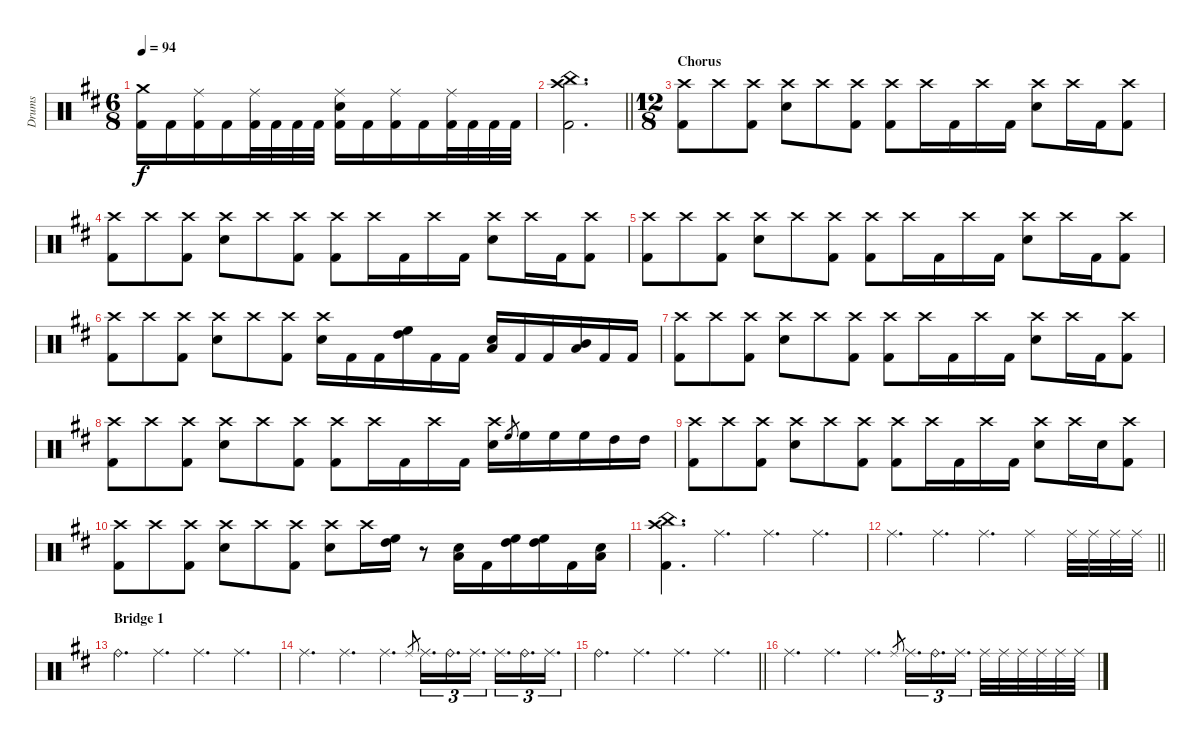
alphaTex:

\track ("Drums" "Drums") {instrument percussion}
\staff {score}
\articulation defaults
\ts (6 8)
\tempo 94
\clef neutral
\ks bminor
("Crash medium (hit)" "Kick (hit) 2").16{dy f} "Kick (hit) 2".16 ("Ride (middle)" "Kick (hit) 2").16 "Kick (hit) 2".16 ("Ride (middle)" "Kick (hit) 2").32 "Kick (hit) 2".32 "Kick (hit) 2".32 "Kick (hit) 2".32 ("Ride (middle)" "Snare (hit) 2" "Kick (hit) 2").16 "Kick (hit) 2".16 ("Ride (middle)" "Kick (hit) 2").16 "Kick (hit) 2".16 ("Ride (middle)" "Kick (hit) 2").32 "Kick (hit) 2".32 "Kick (hit) 2".32 "Kick (hit) 2".32 |
\barLineRight lightlight
("Crash high (hit)" "China (hit)" "Kick (hit) 2").2{d} |
\ts (12 8)
\section ("" "Chorus")
("Crash high (hit)" "Kick (hit) 2").8 "Crash high (hit)".8 ("Crash high (hit)" "Kick (hit) 2").8 ("Crash high (hit)" "Snare (hit) 2").8 "Crash high (hit)".8 ("Crash high (hit)" "Kick (hit) 2").8 ("Crash high (hit)" "Kick (hit) 2").8 "Crash high (hit)".16 "Kick (hit) 2".16 "Crash high (hit)".16 "Kick (hit) 2".16 ("Crash high (hit)" "Snare (hit) 2").8 "Crash high (hit)".16 "Kick (hit) 2".16 ("Crash high (hit)" "Kick (hit) 2").8 |
("Crash high (hit)" "Kick (hit) 2").8 "Crash high (hit)".8 ("Crash high (hit)" "Kick (hit) 2").8 ("Crash high (hit)" "Snare (hit) 2").8 "Crash high (hit)".8 ("Crash high (hit)" "Kick (hit) 2").8 ("Crash high (hit)" "Kick (hit) 2").8 "Crash high (hit)".16 "Kick (hit) 2".16 "Crash high (hit)".16 "Kick (hit) 2".16 ("Crash high (hit)" "Snare (hit) 2").8 "Crash high (hit)".16 "Kick (hit) 2".16 ("Crash high (hit)" "Kick (hit) 2").8 |
("Crash high (hit)" "Kick (hit) 2").8 "Crash high (hit)".8 ("Crash high (hit)" "Kick (hit) 2").8 ("Crash high (hit)" "Snare (hit) 2").8 "Crash high (hit)".8 ("Crash high (hit)" "Kick (hit) 2").8 ("Crash high (hit)" "Kick (hit) 2").8 "Crash high (hit)".16 "Kick (hit) 2".16 "Crash high (hit)".16 "Kick (hit) 2".16 ("Crash high (hit)" "Snare (hit) 2").8 "Crash high (hit)".16 "Kick (hit) 2".16 ("Crash high (hit)" "Kick (hit) 2").8 |
("Crash high (hit)" "Kick (hit) 2").8 "Crash high (hit)".8 ("Crash high (hit)" "Kick (hit) 2").8 ("Crash high (hit)" "Snare (hit) 2").8 "Crash high (hit)".8 ("Crash high (hit)" "Kick (hit) 2").8 ("Crash high (hit)" "Snare (hit) 2").16 "Kick (hit) 2".16 "Kick (hit) 2".16 ("High Floor Tom (hit)" "High Tom (hit)").16 "Kick (hit) 2".16 "Kick (hit) 2".16 ("Low Tom (hit)" "Snare (hit) 2").16 "Kick (hit) 2".16 "Kick (hit) 2".16 ("Mid Tom (hit)" "Low Tom (hit)").16 "Kick (hit) 2".16 "Kick (hit) 2".16 |
("Crash high (hit)" "Kick (hit) 2").8 "Crash high (hit)".8 ("Crash high (hit)" "Kick (hit) 2").8 ("Crash high (hit)" "Snare (hit) 2").8 "Crash high (hit)".8 ("Crash high (hit)" "Kick (hit) 2").8 ("Crash high (hit)" "Kick (hit) 2").8 "Crash high (hit)".16 "Kick (hit) 2".16 "Crash high (hit)".16 "Kick (hit) 2".16 ("Crash high (hit)" "Snare (hit) 2").8 "Crash high (hit)".16 "Kick (hit) 2".16 ("Crash high (hit)" "Kick (hit) 2").8 |
("Crash high (hit)" "Kick (hit) 2").8 "Crash high (hit)".8 ("Crash high (hit)" "Kick (hit) 2").8 ("Crash high (hit)" "Snare (hit) 2").8 "Crash high (hit)".8 ("Crash high (hit)" "Kick (hit) 2").8 ("Crash high (hit)" "Kick (hit) 2").8 "Crash high (hit)".16 "Kick (hit) 2".16 "Crash high (hit)".16 "Kick (hit) 2".16 ("Crash high (hit)" "Snare (hit) 2").16 "High Floor Tom (hit)".8{gr} "High Floor Tom (hit)".16 "High Floor Tom (hit)".16 "High Floor Tom (hit)".16 "High Tom (hit)".16 "High Tom (hit)".16 |
("Crash high (hit)" "Kick (hit) 2").8 "Crash high (hit)".8 ("Crash high (hit)" "Kick (hit) 2").8 ("Crash high (hit)" "Snare (hit) 2").8 "Crash high (hit)".8 ("Crash high (hit)" "Kick (hit) 2").8 ("Crash high (hit)" "Kick (hit) 2").8 "Crash high (hit)".16 "Kick (hit) 2".16 "Crash high (hit)".16 "Kick (hit) 2".16 ("Crash high (hit)" "Snare (hit) 2").8 "Crash high (hit)".16 "Snare (hit) 2".16 ("Crash high (hit)" "Kick (hit) 2").8 |
("Crash high (hit)" "Kick (hit) 2").8 "Crash high (hit)".8 ("Crash high (hit)" "Kick (hit) 2").8 ("Crash high (hit)" "Snare (hit) 2").8 "Crash high (hit)".8 ("Crash high (hit)" "Kick (hit) 2").8 ("Crash high (hit)" "Snare (hit) 2").8 "Crash high (hit)".16 ("High Tom (hit)" "High Floor Tom (hit)").16 r.8 ("Low Tom (hit)" "Snare (hit) 2").16 "Kick (hit) 2".16 ("High Floor Tom (hit)" "High Tom (hit)").16 ("High Floor Tom (hit)" "High Tom (hit)").16 "Kick (hit) 2".16 ("Low Tom (hit)" "Snare (hit) 2").16 |
("China (hit)" "Crash high (hit)" "Kick (hit) 2").4{d} "Ride (middle)".4{d} "Ride (middle)".4{d} "Ride (middle)".4{d} |
\barLineRight lightlight "Ride (middle)".4{d} "Ride (middle)".4{d} "Ride (middle)".4{d} "Ride (middle)".4 "Ride (middle)".32 "Ride (middle)".32 "Ride (middle)".32 "Ride (middle)".32
|
\section ("" "Bridge 1")
"Ride (bell)".4{d} "Ride (middle)".4{d} "Ride (middle)".4{d} "Ride (middle)".4{d} |
"Ride (middle)".4{d} "Ride (middle)".4{d} "Ride (middle)".4{d} "Ride (middle)".8{gr} "Ride (middle)".16{d tu (3 2)} "Ride (bell)".16{d tu (3 2)} "Ride (middle)".16{d tu (3 2)} "Ride (middle)".16{d tu (3 2)} "Ride (bell)".16{d tu (3 2)} "Ride (middle)".16{d tu (3 2)} |
\barLineRight lightlight "Ride (bell)".4{d} "Ride (middle)".4{d} "Ride (middle)".4{d} "Ride (middle)".4{d}
|
"Ride (middle)".4{d} "Ride (middle)".4{d} "Ride (middle)".4{d} "Ride (middle)".8{gr} "Ride (middle)".16{d tu (3 2)} "Ride (bell)".16{d tu (3 2)} "Ride (middle)".16{d tu (3 2) beam splitsecondary} "Ride (middle)".32 "Ride (middle)".32 "Ride (middle)".32 "Ride (middle)".32 "Ride (middle)".32 "Ride (middle)".32
